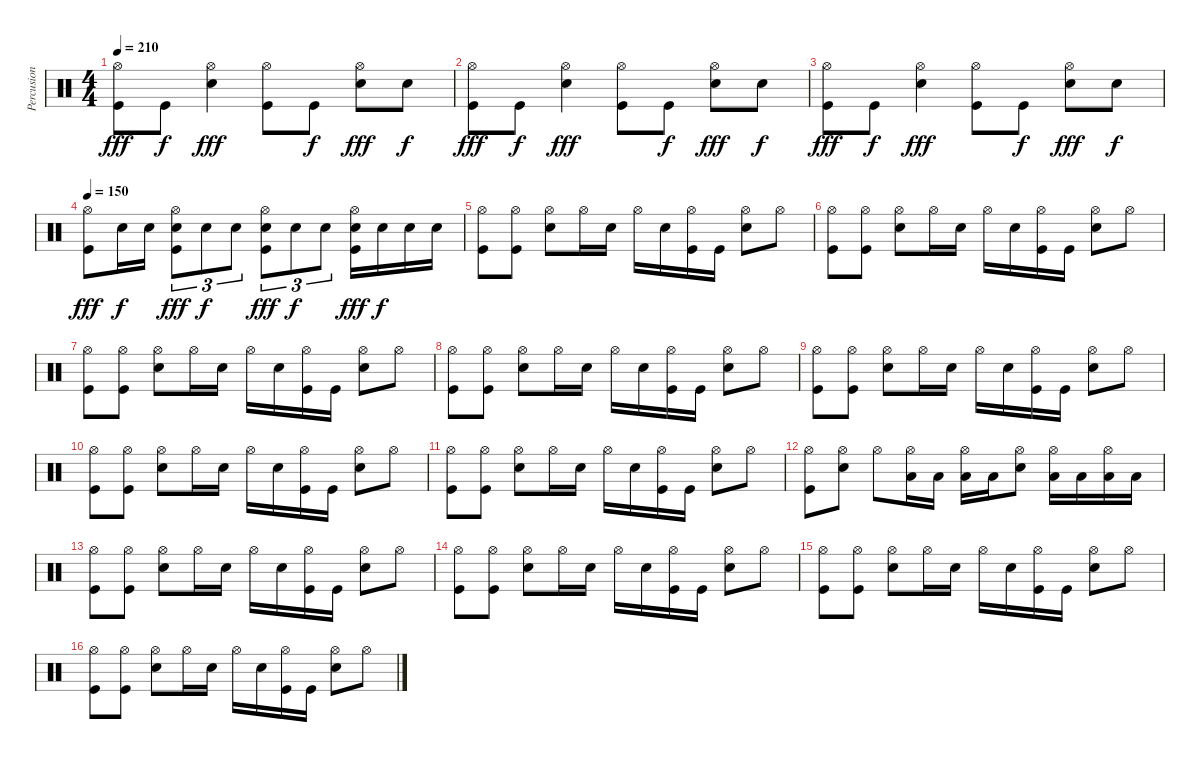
\track ("Percusion" "Percusion") {instrument percussion}
\staff {score}
\articulation defaults
\ts (4 4)
\tempo 210
\clef neutral
\ks c
("Hi-Hat (open)" "Kick (hit)").8{dy fff} "Kick (hit)".8{dy f} ("Hi-Hat (open)" "Electric Snare (hit)").4{dy fff} ("Hi-Hat (open)" "Kick (hit)").8 "Kick (hit)".8{dy f} ("Hi-Hat (open)" "Electric Snare (hit)").8{dy fff} "Electric Snare (hit)".8{dy f} |
("Hi-Hat (open)" "Kick (hit)").8{dy fff} "Kick (hit)".8{dy f} ("Hi-Hat (open)" "Electric Snare (hit)").4{dy fff} ("Hi-Hat (open)" "Kick (hit)").8 "Kick (hit)".8{dy f} ("Hi-Hat (open)" "Electric Snare (hit)").8{dy fff} "Electric Snare (hit)".8{dy f} |
("Hi-Hat (open)" "Kick (hit)").8{dy fff} "Kick (hit)".8{dy f} ("Hi-Hat (open)" "Electric Snare (hit)").4{dy fff} ("Hi-Hat (open)" "Kick (hit)").8 "Kick (hit)".8{dy f} ("Hi-Hat (open)" "Electric Snare (hit)").8{dy fff} "Electric Snare (hit)".8{dy f} |
\tempo 150
("Hi-Hat (open)" "Kick (hit)").8{dy fff} "Electric Snare (hit)".16{dy f} "Electric Snare (hit)".16 ("Hi-Hat (open)" "Electric Snare (hit)" "Kick (hit)").8{tu (3 2) dy fff} "Electric Snare (hit)".8{tu (3 2) dy f} "Electric Snare (hit)".8{tu (3 2)} ("Hi-Hat (open)" "Electric Snare (hit)" "Kick (hit)").8{tu (3 2) dy fff} "Electric Snare (hit)".8{tu (3 2) dy f} "Electric Snare (hit)".8{tu (3 2)} ("Hi-Hat (open)" "Electric Snare (hit)" "Kick (hit)").16{dy fff} "Electric Snare (hit)".16{dy f} "Electric Snare (hit)".16 "Electric Snare (hit)".16 |
("Hi-Hat (open)" "Kick (hit)").8 ("Hi-Hat (open)" "Kick (hit)").8 ("Hi-Hat (open)" "Electric Snare (hit)").8 "Hi-Hat (open)".16 "Electric Snare (hit)".16 "Hi-Hat (open)".16 "Electric Snare (hit)".16 ("Hi-Hat (open)" "Kick (hit)").16 "Kick (hit)".16 ("Hi-Hat (open)" "Electric Snare (hit)").8 "Hi-Hat (open)".8 |
("Hi-Hat (open)" "Kick (hit)").8 ("Hi-Hat (open)" "Kick (hit)").8 ("Hi-Hat (open)" "Electric Snare (hit)").8 "Hi-Hat (open)".16 "Electric Snare (hit)".16 "Hi-Hat (open)".16 "Electric Snare (hit)".16 ("Hi-Hat (open)" "Kick (hit)").16 "Kick (hit)".16 ("Hi-Hat (open)" "Electric Snare (hit)").8 "Hi-Hat (open)".8 |
("Hi-Hat (open)" "Kick (hit)").8 ("Hi-Hat (open)" "Kick (hit)").8 ("Hi-Hat (open)" "Electric Snare (hit)").8 "Hi-Hat (open)".16 "Electric Snare (hit)".16 "Hi-Hat (open)".16 "Electric Snare (hit)".16 ("Hi-Hat (open)" "Kick (hit)").16 "Kick (hit)".16 ("Hi-Hat (open)" "Electric Snare (hit)").8 "Hi-Hat (open)".8 |
("Hi-Hat (open)" "Kick (hit)").8 ("Hi-Hat (open)" "Kick (hit)").8 ("Hi-Hat (open)" "Electric Snare (hit)").8 "Hi-Hat (open)".16 "Electric Snare (hit)".16 "Hi-Hat (open)".16 "Electric Snare (hit)".16 ("Hi-Hat (open)" "Kick (hit)").16 "Kick (hit)".16 ("Hi-Hat (open)" "Electric Snare (hit)").8 "Hi-Hat (open)".8 |
("Hi-Hat (open)" "Kick (hit)").8 ("Hi-Hat (open)" "Kick (hit)").8 ("Hi-Hat (open)" "Electric Snare (hit)").8 "Hi-Hat (open)".16 "Electric Snare (hit)".16 "Hi-Hat (open)".16 "Electric Snare (hit)".16 ("Hi-Hat (open)" "Kick (hit)").16 "Kick (hit)".16 ("Hi-Hat (open)" "Electric Snare (hit)").8 "Hi-Hat (open)".8 |
("Hi-Hat (open)" "Kick (hit)").8 ("Hi-Hat (open)" "Kick (hit)").8 ("Hi-Hat (open)" "Electric Snare (hit)").8 "Hi-Hat (open)".16 "Electric Snare (hit)".16 "Hi-Hat (open)".16 "Electric Snare (hit)".16 ("Hi-Hat (open)" "Kick (hit)").16 "Kick (hit)".16 ("Hi-Hat (open)" "Electric Snare (hit)").8 "Hi-Hat (open)".8 |
("Hi-Hat (open)" "Kick (hit)").8 ("Hi-Hat (open)" "Kick (hit)").8 ("Hi-Hat (open)" "Electric Snare (hit)").8 "Hi-Hat (open)".16 "Electric Snare (hit)".16 "Hi-Hat (open)".16 "Electric Snare (hit)".16 ("Hi-Hat (open)" "Kick (hit)").16 "Kick (hit)".16 ("Hi-Hat (open)" "Electric Snare (hit)").8 "Hi-Hat (open)".8 |
("Hi-Hat (open)" "Kick (hit)").8 ("Hi-Hat (open)" "Electric Snare (hit)").8 "Hi-Hat (open)".8 ("Hi-Hat (open)" "Low Tom (hit)").16 "Low Tom (hit)".16 ("Hi-Hat (open)" "Low Tom (hit)").16 "Low Tom (hit)".16 ("Hi-Hat (open)" "Electric Snare (hit)").8 ("Hi-Hat (open)" "Low Tom (hit)").16 "Low Tom (hit)".16 ("Hi-Hat (open)" "Low Tom (hit)").16 "Low Tom (hit)".16 |
("Hi-Hat (open)" "Kick (hit)").8 ("Hi-Hat (open)" "Kick (hit)").8 ("Hi-Hat (open)" "Electric Snare (hit)").8 "Hi-Hat (open)".16 "Electric Snare (hit)".16 "Hi-Hat (open)".16 "Electric Snare (hit)".16 ("Hi-Hat (open)" "Kick (hit)").16 "Kick (hit)".16 ("Hi-Hat (open)" "Electric Snare (hit)").8 "Hi-Hat (open)".8 |
("Hi-Hat (open)" "Kick (hit)").8 ("Hi-Hat (open)" "Kick (hit)").8 ("Hi-Hat (open)" "Electric Snare (hit)").8 "Hi-Hat (open)".16 "Electric Snare (hit)".16 "Hi-Hat (open)".16 "Electric Snare (hit)".16 ("Hi-Hat (open)" "Kick (hit)").16 "Kick (hit)".16 ("Hi-Hat (open)" "Electric Snare (hit)").8 "Hi-Hat (open)".8 |
("Hi-Hat (open)" "Kick (hit)").8 ("Hi-Hat (open)" "Kick (hit)").8 ("Hi-Hat (open)" "Electric Snare (hit)").8 "Hi-Hat (open)".16 "Electric Snare (hit)".16 "Hi-Hat (open)".16 "Electric Snare (hit)".16 ("Hi-Hat (open)" "Kick (hit)").16 "Kick (hit)".16 ("Hi-Hat (open)" "Electric Snare (hit)").8 "Hi-Hat (open)".8 |
("Hi-Hat (open)" "Kick (hit)").8 ("Hi-Hat (open)" "Kick (hit)").8 ("Hi-Hat (open)" "Electric Snare (hit)").8 "Hi-Hat (open)".16 "Electric Snare (hit)".16 "Hi-Hat (open)".16 "Electric Snare (hit)".16 ("Hi-Hat (open)" "Kick (hit)").16 "Kick (hit)".16 ("Hi-Hat (open)" "Electric Snare (hit)").8 "Hi-Hat (open)".8
